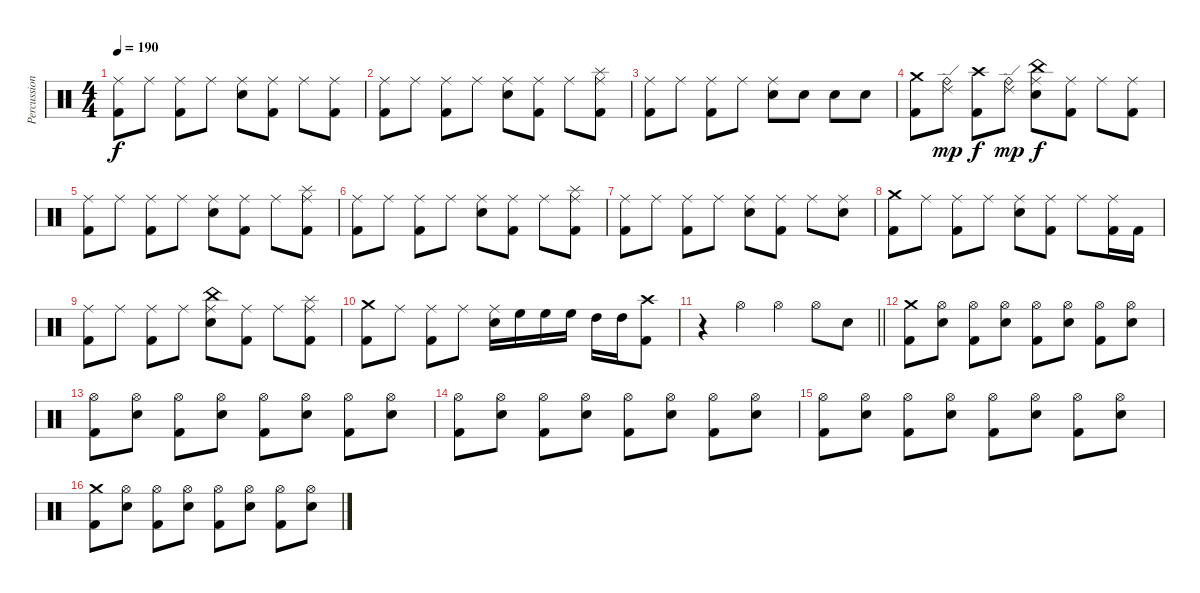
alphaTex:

\track ("Percussions" "Percussion") {instrument percussion}
\staff {score}
\articulation defaults
\ts (4 4)
\tempo 190
\clef neutral
\ks c
("Ride (middle)" "Kick (hit) 2").8{dy f} "Ride (middle)".8 ("Ride (middle)" "Kick (hit) 2").8 "Ride (middle)".8 ("Ride (middle)" "Electric Snare (hit)").8 ("Ride (middle)" "Kick (hit) 2").8 "Ride (middle)".8 ("Ride (middle)" "Kick (hit) 2").8 |
("Ride (middle)" "Kick (hit) 2").8 "Ride (middle)".8 ("Ride (middle)" "Kick (hit) 2").8 "Ride (middle)".8 ("Ride (middle)" "Electric Snare (hit)").8 ("Ride (middle)" "Kick (hit) 2").8 "Ride (middle)".8 ("Ride (middle)" "Splash (hit)" "Kick (hit) 2").8 |
("Ride (middle)" "Kick (hit) 2").8 "Ride (middle)".8 ("Ride (middle)" "Kick (hit) 2").8 "Ride (middle)".8 ("Ride (middle)" "Electric Snare (hit)").8 "Electric Snare (hit)".8 "Electric Snare (hit)".8 "Electric Snare (hit)".8 |
("Crash medium (hit)" "Kick (hit) 2").8 ("Ride (edge) 2" "Ride (bell)").8{dy mp} ("Crash high (hit)" "Kick (hit) 2").8{dy f} ("Ride (edge) 2" "Ride (bell)").8{dy mp} ("Ride (middle)" "China (hit)" "Electric Snare (hit)").8{dy f} ("Ride (middle)" "Kick (hit) 2").8 "Ride (middle)".8 ("Ride (middle)" "Kick (hit) 2").8 |
("Ride (middle)" "Kick (hit) 2").8 "Ride (middle)".8 ("Ride (middle)" "Kick (hit) 2").8 "Ride (middle)".8 ("Ride (middle)" "Electric Snare (hit)").8 ("Ride (middle)" "Kick (hit) 2").8 "Ride (middle)".8 ("Ride (middle)" "Splash (hit)" "Kick (hit) 2").8 |
("Ride (middle)" "Kick (hit) 2").8 "Ride (middle)".8 ("Ride (middle)" "Kick (hit) 2").8 "Ride (middle)".8 ("Ride (middle)" "Electric Snare (hit)").8 ("Ride (middle)" "Kick (hit) 2").8 "Ride (middle)".8 ("Ride (middle)" "Splash (hit)" "Kick (hit) 2").8 |
("Ride (middle)" "Kick (hit) 2").8 "Ride (middle)".8 ("Ride (middle)" "Kick (hit) 2").8 "Ride (middle)".8 ("Ride (middle)" "Electric Snare (hit)").8 ("Ride (middle)" "Kick (hit) 2").8 "Ride (middle)".8 ("Ride (middle)" "Electric Snare (hit)").8 |
("Crash medium (hit)" "Kick (hit) 2").8 "Ride (middle)".8 ("Ride (middle)" "Kick (hit) 2").8 "Ride (middle)".8 ("Ride (middle)" "Electric Snare (hit)").8 ("Ride (middle)" "Kick (hit) 2").8 "Ride (middle)".8 ("Ride (middle)" "Kick (hit) 2").16 "Kick (hit) 2".16 |
("Ride (middle)" "Kick (hit) 2").8 "Ride (middle)".8 ("Ride (middle)" "Kick (hit) 2").8 "Ride (middle)".8 ("Ride (middle)" "China (hit)" "Electric Snare (hit)").8 ("Ride (middle)" "Kick (hit) 2").8 "Ride (middle)".8 ("Ride (middle)" "Splash (hit)" "Kick (hit) 2").8 |
("Crash medium (hit)" "Kick (hit) 2").8 "Ride (middle)".8 ("Ride (middle)" "Kick (hit) 2").8 "Ride (middle)".8 ("Ride (middle)" "Electric Snare (hit)").16 "High Floor Tom (hit)".16 "High Floor Tom (hit)".16 "High Floor Tom (hit)".16 "High Tom (hit)".16 "High Tom (hit)".16 ("Crash high (hit)" "Kick (hit) 2").8 |
\barLineRight lightlight
r.4 "Hi-Hat (open)".4 "Hi-Hat (open)".4 "Hi-Hat (open)".8 "Electric Snare (hit)".8 |
\section ("" "")
("Crash medium (hit)" "Kick (hit) 2").8 ("Hi-Hat (open)" "Electric Snare (hit)").8 ("Hi-Hat (open)" "Kick (hit) 2").8 ("Hi-Hat (open)" "Electric Snare (hit)").8 ("Hi-Hat (open)" "Kick (hit) 2").8 ("Hi-Hat (open)" "Electric Snare (hit)").8 ("Hi-Hat (open)" "Kick (hit) 2").8 ("Hi-Hat (open)" "Electric Snare (hit)").8 |
("Hi-Hat (open)" "Kick (hit) 2").8 ("Hi-Hat (open)" "Electric Snare (hit)").8 ("Hi-Hat (open)" "Kick (hit) 2").8 ("Hi-Hat (open)" "Electric Snare (hit)").8 ("Hi-Hat (open)" "Kick (hit) 2").8 ("Hi-Hat (open)" "Electric Snare (hit)").8 ("Hi-Hat (open)" "Kick (hit) 2").8 ("Hi-Hat (open)" "Electric Snare (hit)").8 |
("Hi-Hat (open)" "Kick (hit) 2").8 ("Hi-Hat (open)" "Electric Snare (hit)").8 ("Hi-Hat (open)" "Kick (hit) 2").8 ("Hi-Hat (open)" "Electric Snare (hit)").8 ("Hi-Hat (open)" "Kick (hit) 2").8 ("Hi-Hat (open)" "Electric Snare (hit)").8 ("Hi-Hat (open)" "Kick (hit) 2").8 ("Hi-Hat (open)" "Electric Snare (hit)").8 |
("Hi-Hat (open)" "Kick (hit) 2").8 ("Hi-Hat (open)" "Electric Snare (hit)").8 ("Hi-Hat (open)" "Kick (hit) 2").8 ("Hi-Hat (open)" "Electric Snare (hit)").8 ("Hi-Hat (open)" "Kick (hit) 2").8 ("Hi-Hat (open)" "Electric Snare (hit)").8 ("Hi-Hat (open)" "Kick (hit) 2").8 ("Hi-Hat (open)" "Electric Snare (hit)").8 |
("Crash medium (hit)" "Kick (hit) 2").8 ("Hi-Hat (open)" "Electric Snare (hit)").8 ("Hi-Hat (open)" "Kick (hit) 2").8 ("Hi-Hat (open)" "Electric Snare (hit)").8 ("Hi-Hat (open)" "Kick (hit) 2").8 ("Hi-Hat (open)" "Electric Snare (hit)").8 ("Hi-Hat (open)" "Kick (hit) 2").8 ("Hi-Hat (open)" "Electric Snare (hit)").8
